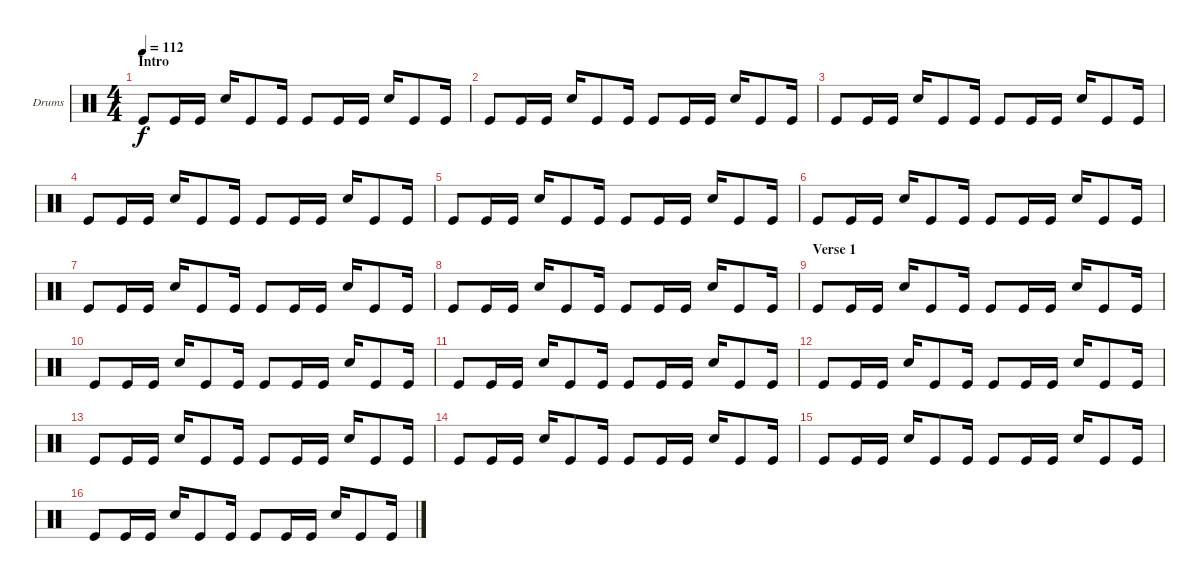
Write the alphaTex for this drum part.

\bracketExtendMode groupsimilarinstruments
\firstSystemTrackNameOrientation horizontal
\otherSystemsTrackNameOrientation horizontal
\track ("Drumkit" "Drums") {instrument percussion}
\staff {score}
\articulation defaults
\ts (4 4)
\section ("" "Intro")
\tempo 112
\clef neutral
\ks c "Kick (hit)".8{dy f} "Kick (hit)".16 "Kick (hit)".16 "Snare (hit) 2".16 "Kick (hit)".8 "Kick (hit)".16 "Kick (hit)".8 "Kick (hit)".16 "Kick (hit)".16 "Snare (hit) 2".16 "Kick (hit)".8 "Kick (hit)".16
|
"Kick (hit)".8 "Kick (hit)".16 "Kick (hit)".16 "Snare (hit) 2".16 "Kick (hit)".8 "Kick (hit)".16 "Kick (hit)".8 "Kick (hit)".16 "Kick (hit)".16 "Snare (hit) 2".16 "Kick (hit)".8 "Kick (hit)".16 |
"Kick (hit)".8 "Kick (hit)".16 "Kick (hit)".16 "Snare (hit) 2".16 "Kick (hit)".8 "Kick (hit)".16 "Kick (hit)".8 "Kick (hit)".16 "Kick (hit)".16 "Snare (hit) 2".16 "Kick (hit)".8 "Kick (hit)".16 |
"Kick (hit)".8 "Kick (hit)".16 "Kick (hit)".16 "Snare (hit) 2".16 "Kick (hit)".8 "Kick (hit)".16 "Kick (hit)".8 "Kick (hit)".16 "Kick (hit)".16 "Snare (hit) 2".16 "Kick (hit)".8 "Kick (hit)".16 |
"Kick (hit)".8 "Kick (hit)".16 "Kick (hit)".16 "Snare (hit) 2".16 "Kick (hit)".8 "Kick (hit)".16 "Kick (hit)".8 "Kick (hit)".16 "Kick (hit)".16 "Snare (hit) 2".16 "Kick (hit)".8 "Kick (hit)".16 |
"Kick (hit)".8 "Kick (hit)".16 "Kick (hit)".16 "Snare (hit) 2".16 "Kick (hit)".8 "Kick (hit)".16 "Kick (hit)".8 "Kick (hit)".16 "Kick (hit)".16 "Snare (hit) 2".16 "Kick (hit)".8 "Kick (hit)".16 |
"Kick (hit)".8 "Kick (hit)".16 "Kick (hit)".16 "Snare (hit) 2".16 "Kick (hit)".8 "Kick (hit)".16 "Kick (hit)".8 "Kick (hit)".16 "Kick (hit)".16 "Snare (hit) 2".16 "Kick (hit)".8 "Kick (hit)".16 |
"Kick (hit)".8 "Kick (hit)".16 "Kick (hit)".16 "Snare (hit) 2".16 "Kick (hit)".8 "Kick (hit)".16 "Kick (hit)".8 "Kick (hit)".16 "Kick (hit)".16 "Snare (hit) 2".16 "Kick (hit)".8 "Kick (hit)".16 |
\section ("" "Verse 1")
"Kick (hit)".8 "Kick (hit)".16 "Kick (hit)".16 "Snare (hit) 2".16 "Kick (hit)".8 "Kick (hit)".16 "Kick (hit)".8 "Kick (hit)".16 "Kick (hit)".16 "Snare (hit) 2".16 "Kick (hit)".8 "Kick (hit)".16 |
"Kick (hit)".8 "Kick (hit)".16 "Kick (hit)".16 "Snare (hit) 2".16 "Kick (hit)".8 "Kick (hit)".16 "Kick (hit)".8 "Kick (hit)".16 "Kick (hit)".16 "Snare (hit) 2".16 "Kick (hit)".8 "Kick (hit)".16 |
"Kick (hit)".8 "Kick (hit)".16 "Kick (hit)".16 "Snare (hit) 2".16 "Kick (hit)".8 "Kick (hit)".16 "Kick (hit)".8 "Kick (hit)".16 "Kick (hit)".16 "Snare (hit) 2".16 "Kick (hit)".8 "Kick (hit)".16 |
"Kick (hit)".8 "Kick (hit)".16 "Kick (hit)".16 "Snare (hit) 2".16 "Kick (hit)".8 "Kick (hit)".16 "Kick (hit)".8 "Kick (hit)".16 "Kick (hit)".16 "Snare (hit) 2".16 "Kick (hit)".8 "Kick (hit)".16 |
"Kick (hit)".8 "Kick (hit)".16 "Kick (hit)".16 "Snare (hit) 2".16 "Kick (hit)".8 "Kick (hit)".16 "Kick (hit)".8 "Kick (hit)".16 "Kick (hit)".16 "Snare (hit) 2".16 "Kick (hit)".8 "Kick (hit)".16 |
"Kick (hit)".8 "Kick (hit)".16 "Kick (hit)".16 "Snare (hit) 2".16 "Kick (hit)".8 "Kick (hit)".16 "Kick (hit)".8 "Kick (hit)".16 "Kick (hit)".16 "Snare (hit) 2".16 "Kick (hit)".8 "Kick (hit)".16 |
"Kick (hit)".8 "Kick (hit)".16 "Kick (hit)".16 "Snare (hit) 2".16 "Kick (hit)".8 "Kick (hit)".16 "Kick (hit)".8 "Kick (hit)".16 "Kick (hit)".16 "Snare (hit) 2".16 "Kick (hit)".8 "Kick (hit)".16 |
"Kick (hit)".8 "Kick (hit)".16 "Kick (hit)".16 "Snare (hit) 2".16 "Kick (hit)".8 "Kick (hit)".16 "Kick (hit)".8 "Kick (hit)".16 "Kick (hit)".16 "Snare (hit) 2".16 "Kick (hit)".8 "Kick (hit)".16
